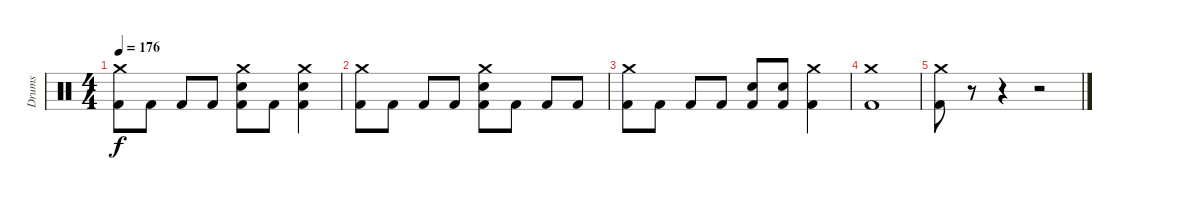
\track ("Drums" "Drums") {instrument percussion}
\staff {score}
\articulation defaults
\ts (4 4)
\tempo 176
\clef neutral
\ks c
("Crash medium (hit)" "Kick (hit) 2").8{dy f} "Kick (hit) 2".8 "Kick (hit) 2".8 "Kick (hit) 2".8 ("Crash medium (hit)" "Snare (hit) 2" "Kick (hit) 2").8 "Kick (hit) 2".8 ("Crash medium (hit)" "Snare (hit) 2" "Kick (hit) 2").4 |
("Crash medium (hit)" "Kick (hit) 2").8 "Kick (hit) 2".8 "Kick (hit) 2".8 "Kick (hit) 2".8 ("Crash medium (hit)" "Snare (hit) 2" "Kick (hit) 2").8 "Kick (hit) 2".8 "Kick (hit) 2".8 "Kick (hit) 2".8 |
("Crash medium (hit)" "Kick (hit) 2").8 "Kick (hit) 2".8 "Kick (hit) 2".8 "Kick (hit) 2".8 ("Snare (hit) 2" "Kick (hit) 2").8 ("Snare (hit) 2" "Kick (hit) 2").8 ("Crash medium (hit)" "Kick (hit) 2").4 |
("Crash medium (hit)" "Kick (hit) 2").1 |
("Crash medium (hit)" "Kick (hit) 2").8 r.8 r.4 r.2
